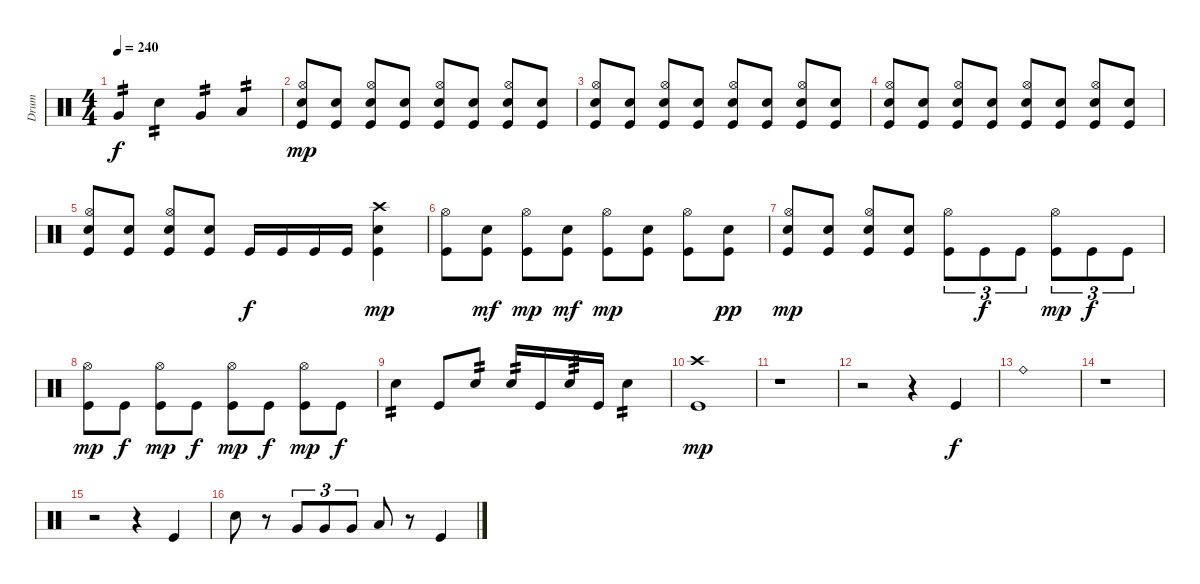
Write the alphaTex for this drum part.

\track ("Drum" "Drum") {instrument percussion}
\staff {score}
\articulation defaults
\ts (4 4)
\tempo 240
\clef neutral
\ks c "Very Low Tom (hit)".4{tp 2 dy f} "Electric Snare (hit)".4{tp 2} "Very Low Tom (hit)".4{tp 2} "Low Floor Tom (hit)".4{tp 2}
|
("Hi-Hat (open)" "Electric Snare (hit)" "Kick (hit)").8{dy mp} ("Electric Snare (hit)" "Kick (hit)").8 ("Hi-Hat (open)" "Electric Snare (hit)" "Kick (hit)").8 ("Electric Snare (hit)" "Kick (hit)").8 ("Hi-Hat (open)" "Electric Snare (hit)" "Kick (hit)").8 ("Electric Snare (hit)" "Kick (hit)").8 ("Hi-Hat (open)" "Electric Snare (hit)" "Kick (hit)").8 ("Electric Snare (hit)" "Kick (hit)").8 |
("Hi-Hat (open)" "Electric Snare (hit)" "Kick (hit)").8 ("Electric Snare (hit)" "Kick (hit)").8 ("Hi-Hat (open)" "Electric Snare (hit)" "Kick (hit)").8 ("Electric Snare (hit)" "Kick (hit)").8 ("Hi-Hat (open)" "Electric Snare (hit)" "Kick (hit)").8 ("Electric Snare (hit)" "Kick (hit)").8 ("Hi-Hat (open)" "Electric Snare (hit)" "Kick (hit)").8 ("Electric Snare (hit)" "Kick (hit)").8 |
("Hi-Hat (open)" "Electric Snare (hit)" "Kick (hit)").8 ("Electric Snare (hit)" "Kick (hit)").8 ("Hi-Hat (open)" "Electric Snare (hit)" "Kick (hit)").8 ("Electric Snare (hit)" "Kick (hit)").8 ("Hi-Hat (open)" "Electric Snare (hit)" "Kick (hit)").8 ("Electric Snare (hit)" "Kick (hit)").8 ("Hi-Hat (open)" "Electric Snare (hit)" "Kick (hit)").8 ("Electric Snare (hit)" "Kick (hit)").8 |
("Hi-Hat (open)" "Electric Snare (hit)" "Kick (hit)").8 ("Electric Snare (hit)" "Kick (hit)").8 ("Hi-Hat (open)" "Electric Snare (hit)" "Kick (hit)").8 ("Electric Snare (hit)" "Kick (hit)").8 "Kick (hit)".16{dy f} "Kick (hit)".16 "Kick (hit)".16 "Kick (hit)".16 ("Crash high (hit)" "Electric Snare (hit)" "Kick (hit)").4{dy mp} |
("Hi-Hat (open)" "Kick (hit)").8 ("Electric Snare (hit)" "Kick (hit)").8{dy mf} ("Hi-Hat (open)" "Kick (hit)").8{dy mp} ("Electric Snare (hit)" "Kick (hit)").8{dy mf} ("Hi-Hat (open)" "Kick (hit)").8{dy mp} ("Electric Snare (hit)" "Kick (hit)").8 ("Hi-Hat (open)" "Kick (hit)").8 ("Electric Snare (hit)" "Kick (hit)").8{dy pp} |
("Hi-Hat (open)" "Electric Snare (hit)" "Kick (hit)").8{dy mp} ("Electric Snare (hit)" "Kick (hit)").8 ("Hi-Hat (open)" "Electric Snare (hit)" "Kick (hit)").8 ("Electric Snare (hit)" "Kick (hit)").8 ("Hi-Hat (open)" "Kick (hit)").8{tu (3 2)} "Kick (hit)".8{tu (3 2) dy f} "Kick (hit)".8{tu (3 2)} ("Hi-Hat (open)" "Kick (hit)").8{tu (3 2) dy mp} "Kick (hit)".8{tu (3 2) dy f} "Kick (hit)".8{tu (3 2)} |
("Hi-Hat (open)" "Kick (hit)").8{dy mp} "Kick (hit)".8{dy f} ("Hi-Hat (open)" "Kick (hit)").8{dy mp} "Kick (hit)".8{dy f} ("Hi-Hat (open)" "Kick (hit)").8{dy mp} "Kick (hit)".8{dy f} ("Hi-Hat (open)" "Kick (hit)").8{dy mp} "Kick (hit)".8{dy f} |
"Electric Snare (hit)".4{tp 2} "Kick (hit)".8 "Electric Snare (hit)".8{tp 2} "Electric Snare (hit)".16{tp 2} "Kick (hit)".16 "Electric Snare (hit)".16{tp 3} "Kick (hit)".16 "Electric Snare (hit)".4{tp 2} |
("Crash high (hit)" "Kick (hit)").1{dy mp} |
r.1 |
r.2 r.4 "Kick (hit)".4{dy f} |
"Ride (bell)".1 |
r.1 |
r.2 r.4 "Kick (hit)".4 |
"Electric Snare (hit)".8 r.8 "Very Low Tom (hit)".8{tu (3 2)} "Very Low Tom (hit)".8{tu (3 2)} "Very Low Tom (hit)".8{tu (3 2)} "Low Floor Tom (hit)".8 r.8 "Kick (hit)".4
